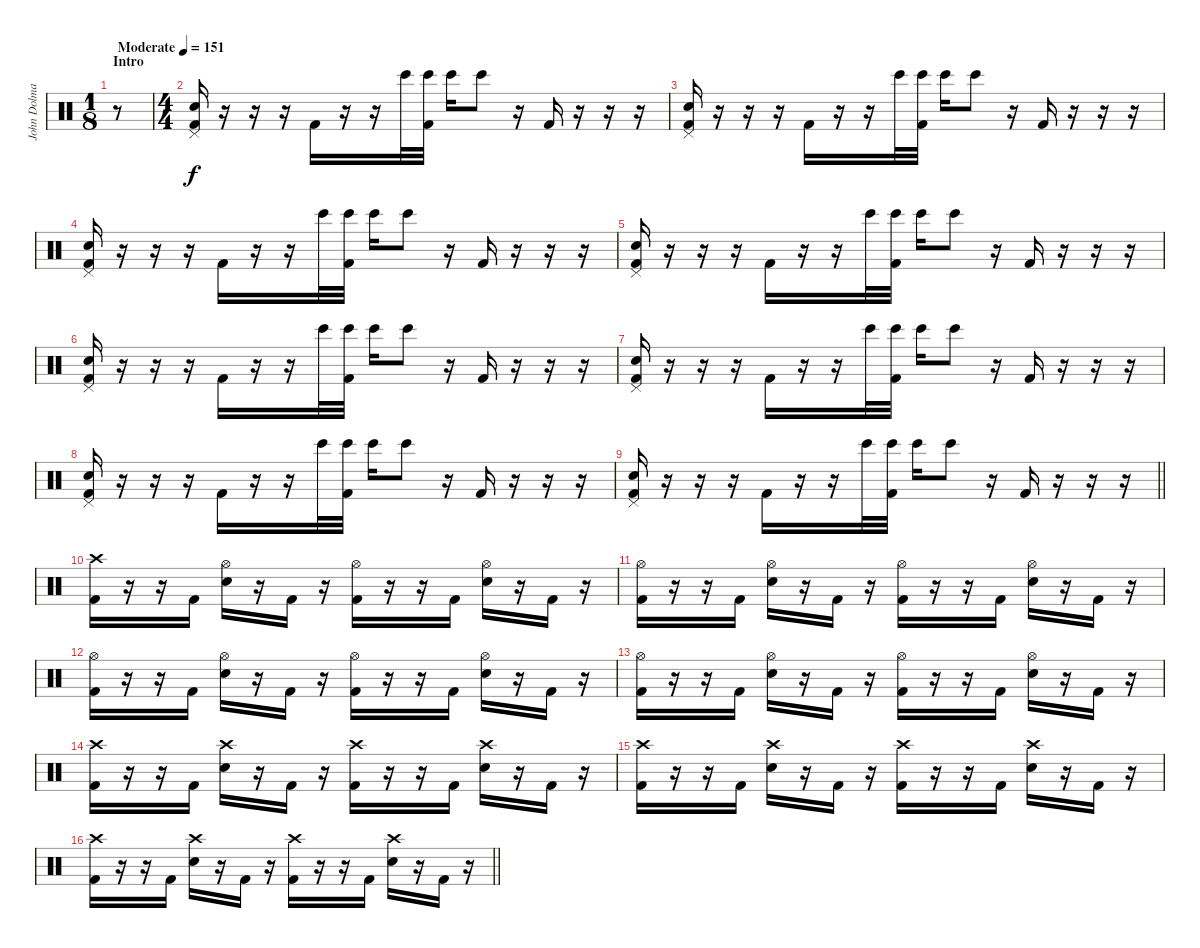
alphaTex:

\track ("John Dolmayan" "John Dolma") {instrument percussion}
\staff {score}
\articulation defaults
\ts (1 8)
\section ("" "Intro")
\tempo (151 "Moderate")
\clef neutral
\ks c
r.8{dy f} |
\ts (4 4)
("Pedal Hi-Hat (hit)" "Snare (hit) 2" "Kick (hit) 2").16 r.16 r.16 r.16 "Kick (hit) 2".16 r.16 r.16 "Bongo High (hit)".32 ("Bongo High (hit)" "Kick (hit) 2").32 "Bongo High (hit)".16 "Bongo High (hit)".8 r.16 "Kick (hit) 2".16 r.16 r.16 r.16 |
("Pedal Hi-Hat (hit)" "Snare (hit) 2" "Kick (hit) 2").16 r.16 r.16 r.16 "Kick (hit) 2".16 r.16 r.16 "Bongo High (hit)".32 ("Bongo High (hit)" "Kick (hit) 2").32 "Bongo High (hit)".16 "Bongo High (hit)".8 r.16 "Kick (hit) 2".16 r.16 r.16 r.16 |
("Pedal Hi-Hat (hit)" "Snare (hit) 2" "Kick (hit) 2").16 r.16 r.16 r.16 "Kick (hit) 2".16 r.16 r.16 "Bongo High (hit)".32 ("Bongo High (hit)" "Kick (hit) 2").32 "Bongo High (hit)".16 "Bongo High (hit)".8 r.16 "Kick (hit) 2".16 r.16 r.16 r.16 |
("Pedal Hi-Hat (hit)" "Snare (hit) 2" "Kick (hit) 2").16 r.16 r.16 r.16 "Kick (hit) 2".16 r.16 r.16 "Bongo High (hit)".32 ("Bongo High (hit)" "Kick (hit) 2").32 "Bongo High (hit)".16 "Bongo High (hit)".8 r.16 "Kick (hit) 2".16 r.16 r.16 r.16 |
("Pedal Hi-Hat (hit)" "Snare (hit) 2" "Kick (hit) 2").16 r.16 r.16 r.16 "Kick (hit) 2".16 r.16 r.16 "Bongo High (hit)".32 ("Bongo High (hit)" "Kick (hit) 2").32 "Bongo High (hit)".16 "Bongo High (hit)".8 r.16 "Kick (hit) 2".16 r.16 r.16 r.16 |
("Pedal Hi-Hat (hit)" "Snare (hit) 2" "Kick (hit) 2").16 r.16 r.16 r.16 "Kick (hit) 2".16 r.16 r.16 "Bongo High (hit)".32 ("Bongo High (hit)" "Kick (hit) 2").32 "Bongo High (hit)".16 "Bongo High (hit)".8 r.16 "Kick (hit) 2".16 r.16 r.16 r.16 |
("Pedal Hi-Hat (hit)" "Snare (hit) 2" "Kick (hit) 2").16 r.16 r.16 r.16 "Kick (hit) 2".16 r.16 r.16 "Bongo High (hit)".32 ("Bongo High (hit)" "Kick (hit) 2").32 "Bongo High (hit)".16 "Bongo High (hit)".8 r.16 "Kick (hit) 2".16 r.16 r.16 r.16 |
\barLineRight lightlight
("Pedal Hi-Hat (hit)" "Snare (hit) 2" "Kick (hit) 2").16 r.16 r.16 r.16 "Kick (hit) 2".16 r.16 r.16 "Bongo High (hit)".32 ("Bongo High (hit)" "Kick (hit) 2").32 "Bongo High (hit)".16 "Bongo High (hit)".8 r.16 "Kick (hit) 2".16 r.16 r.16 r.16 |
("Crash high (hit)" "Kick (hit) 2").16 r.16 r.16 "Kick (hit) 2".16 ("Hi-Hat (open)" "Snare (hit) 2").16 r.16 "Kick (hit) 2".16 r.16 ("Hi-Hat (open)" "Kick (hit) 2").16 r.16 r.16 "Kick (hit) 2".16 ("Hi-Hat (open)" "Snare (hit) 2").16 r.16 "Kick (hit) 2".16 r.16 |
("Hi-Hat (open)" "Kick (hit) 2").16 r.16 r.16 "Kick (hit) 2".16 ("Hi-Hat (open)" "Snare (hit) 2").16 r.16 "Kick (hit) 2".16 r.16 ("Hi-Hat (open)" "Kick (hit) 2").16 r.16 r.16 "Kick (hit) 2".16 ("Hi-Hat (open)" "Snare (hit) 2").16 r.16 "Kick (hit) 2".16 r.16 |
("Hi-Hat (open)" "Kick (hit) 2").16 r.16 r.16 "Kick (hit) 2".16 ("Hi-Hat (open)" "Snare (hit) 2").16 r.16 "Kick (hit) 2".16 r.16 ("Hi-Hat (open)" "Kick (hit) 2").16 r.16 r.16 "Kick (hit) 2".16 ("Hi-Hat (open)" "Snare (hit) 2").16 r.16 "Kick (hit) 2".16 r.16 |
("Hi-Hat (open)" "Kick (hit) 2").16 r.16 r.16 "Kick (hit) 2".16 ("Hi-Hat (open)" "Snare (hit) 2").16 r.16 "Kick (hit) 2".16 r.16 ("Hi-Hat (open)" "Kick (hit) 2").16 r.16 r.16 "Kick (hit) 2".16 ("Hi-Hat (open)" "Snare (hit) 2").16 r.16 "Kick (hit) 2".16 r.16 |
("Crash high (hit)" "Kick (hit) 2").16 r.16 r.16 "Kick (hit) 2".16 ("Crash high (hit)" "Snare (hit) 2").16 r.16 "Kick (hit) 2".16 r.16 ("Crash high (hit)" "Kick (hit) 2").16 r.16 r.16 "Kick (hit) 2".16 ("Crash high (hit)" "Snare (hit) 2").16 r.16 "Kick (hit) 2".16 r.16 |
("Crash high (hit)" "Kick (hit) 2").16 r.16 r.16 "Kick (hit) 2".16 ("Crash high (hit)" "Snare (hit) 2").16 r.16 "Kick (hit) 2".16 r.16 ("Crash high (hit)" "Kick (hit) 2").16 r.16 r.16 "Kick (hit) 2".16 ("Crash high (hit)" "Snare (hit) 2").16 r.16 "Kick (hit) 2".16 r.16 |
\barLineRight lightlight
("Crash high (hit)" "Kick (hit) 2").16 r.16 r.16 "Kick (hit) 2".16 ("Crash high (hit)" "Snare (hit) 2").16 r.16 "Kick (hit) 2".16 r.16 ("Crash high (hit)" "Kick (hit) 2").16 r.16 r.16 "Kick (hit) 2".16 ("Crash high (hit)" "Snare (hit) 2").16 r.16 "Kick (hit) 2".16 r.16
